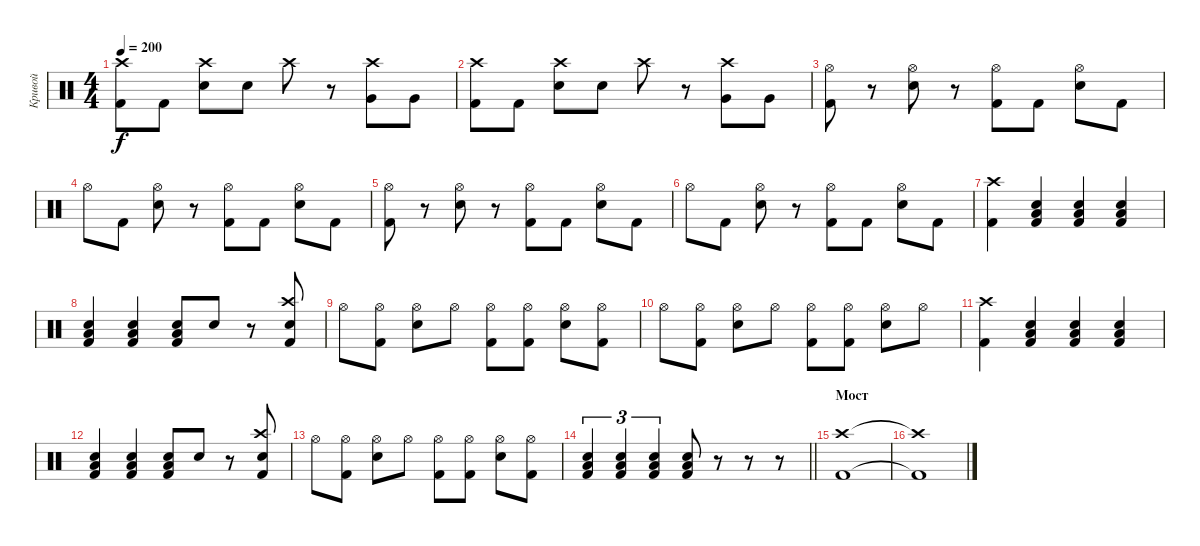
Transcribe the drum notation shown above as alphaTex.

\track ("Кривой" "Кривой") {instrument percussion}
\staff {score}
\articulation defaults
\ts (4 4)
\tempo 200
\clef neutral
\ks c
("Kick (hit) 2" "Crash high (hit)").8{dy f} "Kick (hit) 2".8 ("Electric Snare (hit)" "Crash high (hit)").8 "Electric Snare (hit)".8 "Crash high (hit)".8 r.8 ("Very Low Tom (hit)" "Crash high (hit)").8 "Very Low Tom (hit)".8 |
("Kick (hit) 2" "Crash high (hit)").8 "Kick (hit) 2".8 ("Electric Snare (hit)" "Crash high (hit)").8 "Electric Snare (hit)".8 "Crash high (hit)".8 r.8 ("Very Low Tom (hit)" "Crash high (hit)").8 "Very Low Tom (hit)".8 |
("Kick (hit) 2" "Hi-Hat (open)").8 r.8 ("Electric Snare (hit)" "Hi-Hat (open)").8 r.8 ("Kick (hit) 2" "Hi-Hat (open)").8 "Kick (hit) 2".8 ("Electric Snare (hit)" "Hi-Hat (open)").8 "Kick (hit) 2".8 |
"Hi-Hat (open)".8 "Kick (hit) 2".8 ("Electric Snare (hit)" "Hi-Hat (open)").8 r.8 ("Kick (hit) 2" "Hi-Hat (open)").8 "Kick (hit) 2".8 ("Electric Snare (hit)" "Hi-Hat (open)").8 "Kick (hit) 2".8 |
("Kick (hit) 2" "Hi-Hat (open)").8 r.8 ("Electric Snare (hit)" "Hi-Hat (open)").8 r.8 ("Kick (hit) 2" "Hi-Hat (open)").8 "Kick (hit) 2".8 ("Electric Snare (hit)" "Hi-Hat (open)").8 "Kick (hit) 2".8 |
"Hi-Hat (open)".8 "Kick (hit) 2".8 ("Electric Snare (hit)" "Hi-Hat (open)").8 r.8 ("Kick (hit) 2" "Hi-Hat (open)").8 "Kick (hit) 2".8 ("Electric Snare (hit)" "Hi-Hat (open)").8 "Kick (hit) 2".8 |
("Kick (hit) 2" "Crash high (hit)").4 ("Kick (hit) 2" "Electric Snare (hit)" "Low Tom (hit)").4 ("Kick (hit) 2" "Electric Snare (hit)" "Low Tom (hit)").4 ("Kick (hit) 2" "Electric Snare (hit)" "Low Tom (hit)").4 |
("Kick (hit) 2" "Electric Snare (hit)" "Low Tom (hit)").4 ("Kick (hit) 2" "Electric Snare (hit)" "Low Tom (hit)").4 ("Kick (hit) 2" "Electric Snare (hit)" "Low Tom (hit)").8 "Electric Snare (hit)".8 r.8 ("Kick (hit) 2" "Electric Snare (hit)" "Crash high (hit)").8 |
"Hi-Hat (open)".8 ("Kick (hit) 2" "Hi-Hat (open)").8 ("Electric Snare (hit)" "Hi-Hat (open)").8 "Hi-Hat (open)".8 ("Kick (hit) 2" "Hi-Hat (open)").8 ("Kick (hit) 2" "Hi-Hat (open)").8 ("Electric Snare (hit)" "Hi-Hat (open)").8 ("Kick (hit) 2" "Hi-Hat (open)").8 |
"Hi-Hat (open)".8 ("Kick (hit) 2" "Hi-Hat (open)").8 ("Electric Snare (hit)" "Hi-Hat (open)").8 "Hi-Hat (open)".8 ("Kick (hit) 2" "Hi-Hat (open)").8 ("Kick (hit) 2" "Hi-Hat (open)").8 ("Electric Snare (hit)" "Hi-Hat (open)").8 "Hi-Hat (open)".8 |
("Kick (hit) 2" "Crash high (hit)").4 ("Kick (hit) 2" "Electric Snare (hit)" "Low Tom (hit)").4 ("Kick (hit) 2" "Electric Snare (hit)" "Low Tom (hit)").4 ("Kick (hit) 2" "Electric Snare (hit)" "Low Tom (hit)").4 |
("Kick (hit) 2" "Electric Snare (hit)" "Low Tom (hit)").4 ("Kick (hit) 2" "Electric Snare (hit)" "Low Tom (hit)").4 ("Kick (hit) 2" "Electric Snare (hit)" "Low Tom (hit)").8 "Electric Snare (hit)".8 r.8 ("Kick (hit) 2" "Electric Snare (hit)" "Crash high (hit)").8 |
"Hi-Hat (open)".8 ("Kick (hit) 2" "Hi-Hat (open)").8 ("Electric Snare (hit)" "Hi-Hat (open)").8 "Hi-Hat (open)".8 ("Kick (hit) 2" "Hi-Hat (open)").8 ("Kick (hit) 2" "Hi-Hat (open)").8 ("Electric Snare (hit)" "Hi-Hat (open)").8 ("Kick (hit) 2" "Hi-Hat (open)").8 |
\barLineRight lightlight
("Kick (hit) 2" "Electric Snare (hit)" "Low Tom (hit)").4{tu (3 2)} ("Kick (hit) 2" "Electric Snare (hit)" "Low Tom (hit)").4{tu (3 2)} ("Kick (hit) 2" "Electric Snare (hit)" "Low Tom (hit)").4{tu (3 2)} ("Kick (hit) 2" "Electric Snare (hit)" "Low Tom (hit)").8 r.8 r.8 r.8 |
\section ("" "Мост")
("Kick (hit) 2" "Crash high (hit)").1 |
("Kick (hit) 2"{t} "Crash high (hit)"{t}).1
